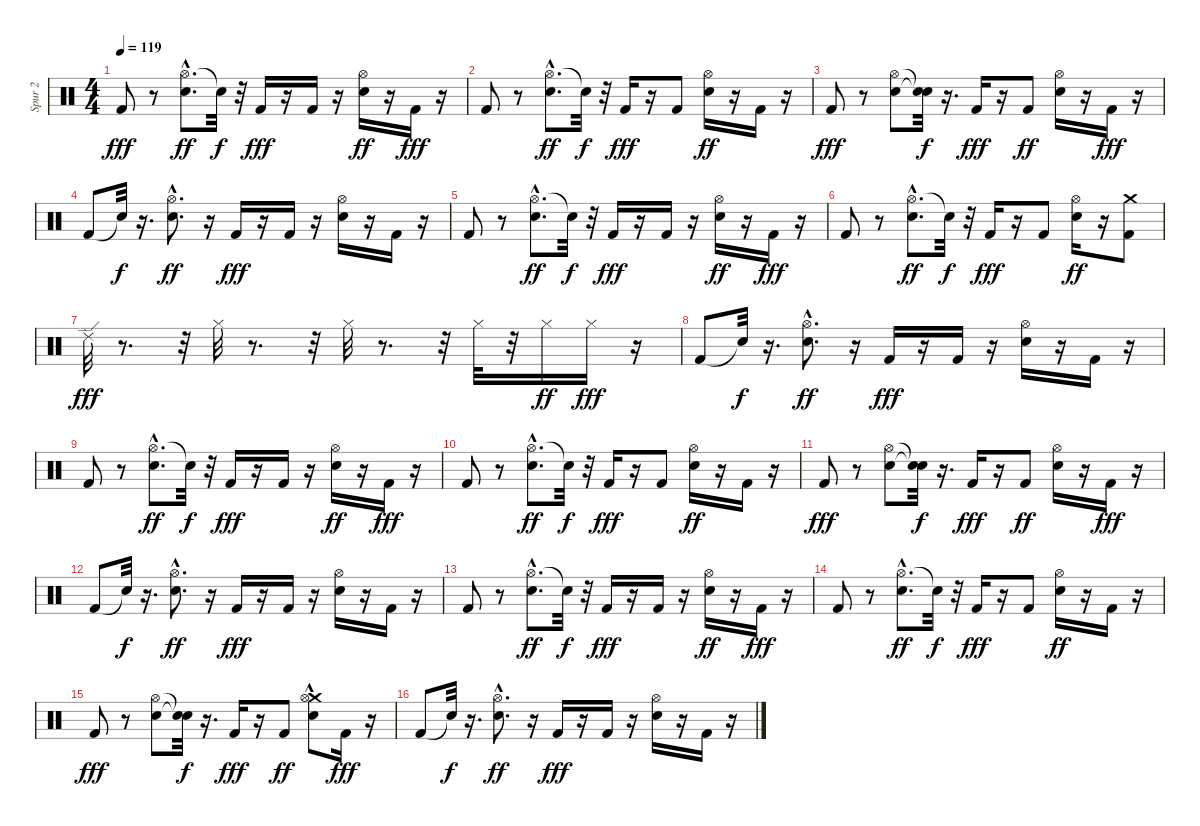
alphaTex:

\track ("Spur 2" "Spur 2") {instrument percussion}
\staff {score}
\articulation defaults
\ts (4 4)
\tempo 119
\clef neutral
\ks c "Kick (hit) 2".8{dy fff}
r.8 ("Hi-Hat (open)"{hac} "Electric Snare (hit)").8{d dy ff} "Snare (hit)"{t}.32{dy f} r.32 "Kick (hit) 2".16{dy fff} r.16 "Kick (hit) 2".16 r.16 ("Hi-Hat (open)" "Electric Snare (hit)").16{dy ff} r.16 "Kick (hit) 2".16{dy fff} r.16 |
"Kick (hit) 2".8 r.8 ("Hi-Hat (open)"{hac} "Electric Snare (hit)").8{d dy ff} "Snare (hit)"{t}.32{dy f} r.32 "Kick (hit) 2".16{dy fff} r.16 "Kick (hit) 2".8 ("Hi-Hat (open)" "Electric Snare (hit)").16{dy ff} r.16 "Kick (hit) 2".16 r.16 |
"Kick (hit) 2".8{dy fff} r.8 ("Hi-Hat (open)" "Electric Snare (hit)").8 ("Snare (hit)"{t} "Snare (hit)"{t}).32{dy f} r.16{d} "Kick (hit) 2".16{dy fff} r.16 "Kick (hit) 2".8{dy ff} ("Hi-Hat (open)" "Electric Snare (hit)").16 r.16 "Kick (hit) 2".16{dy fff} r.16 |
"Kick (hit) 2".8 "Snare (hit)"{t}.32{dy f} r.16{d} ("Hi-Hat (open)"{hac} "Electric Snare (hit)").8{d dy ff} r.16 "Kick (hit) 2".16{dy fff} r.16 "Kick (hit) 2".16 r.16 ("Hi-Hat (open)" "Electric Snare (hit)").16 r.16 "Kick (hit) 2".16 r.16 |
"Kick (hit) 2".8 r.8 ("Hi-Hat (open)"{hac} "Electric Snare (hit)").8{d dy ff} "Snare (hit)"{t}.32{dy f} r.32 "Kick (hit) 2".16{dy fff} r.16 "Kick (hit) 2".16 r.16 ("Hi-Hat (open)" "Electric Snare (hit)").16{dy ff} r.16 "Kick (hit) 2".16{dy fff} r.16 |
"Kick (hit) 2".8 r.8 ("Hi-Hat (open)"{hac} "Electric Snare (hit)").8{d dy ff} "Snare (hit)"{t}.32{dy f} r.32 "Kick (hit) 2".16{dy fff} r.16 "Kick (hit) 2".8 ("Hi-Hat (open)" "Electric Snare (hit)").16{dy ff} r.16 ("Crash medium (hit)" "Kick (hit) 2").8 |
"Ride (edge) 2".32{dy fff} r.8{d} r.32 "Hi-Hat (closed)".32 r.8{d} r.32 "Hi-Hat (closed)".32 r.8{d} r.32 "Hi-Hat (closed)".32 r.32 "Hi-Hat (closed)".16{dy ff} "Hi-Hat (closed)".16{dy fff} r.16 |
"Kick (hit) 2".8 "Snare (hit)"{t}.32{dy f} r.16{d} ("Hi-Hat (open)"{hac} "Electric Snare (hit)").8{d dy ff} r.16 "Kick (hit) 2".16{dy fff} r.16 "Kick (hit) 2".16 r.16 ("Hi-Hat (open)" "Electric Snare (hit)").16 r.16 "Kick (hit) 2".16 r.16 |
"Kick (hit) 2".8 r.8 ("Hi-Hat (open)"{hac} "Electric Snare (hit)").8{d dy ff} "Snare (hit)"{t}.32{dy f} r.32 "Kick (hit) 2".16{dy fff} r.16 "Kick (hit) 2".16 r.16 ("Hi-Hat (open)" "Electric Snare (hit)").16{dy ff} r.16 "Kick (hit) 2".16{dy fff} r.16 |
"Kick (hit) 2".8 r.8 ("Hi-Hat (open)"{hac} "Electric Snare (hit)").8{d dy ff} "Snare (hit)"{t}.32{dy f} r.32 "Kick (hit) 2".16{dy fff} r.16 "Kick (hit) 2".8 ("Hi-Hat (open)" "Electric Snare (hit)").16{dy ff} r.16 "Kick (hit) 2".16 r.16 |
"Kick (hit) 2".8{dy fff} r.8 ("Hi-Hat (open)" "Electric Snare (hit)").8 ("Snare (hit)"{t} "Snare (hit)"{t}).32{dy f} r.16{d} "Kick (hit) 2".16{dy fff} r.16 "Kick (hit) 2".8{dy ff} ("Hi-Hat (open)" "Electric Snare (hit)").16 r.16 "Kick (hit) 2".16{dy fff} r.16 |
"Kick (hit) 2".8 "Snare (hit)"{t}.32{dy f} r.16{d} ("Hi-Hat (open)"{hac} "Electric Snare (hit)").8{d dy ff} r.16 "Kick (hit) 2".16{dy fff} r.16 "Kick (hit) 2".16 r.16 ("Hi-Hat (open)" "Electric Snare (hit)").16 r.16 "Kick (hit) 2".16 r.16 |
"Kick (hit) 2".8 r.8 ("Hi-Hat (open)"{hac} "Electric Snare (hit)").8{d dy ff} "Snare (hit)"{t}.32{dy f} r.32 "Kick (hit) 2".16{dy fff} r.16 "Kick (hit) 2".16 r.16 ("Hi-Hat (open)" "Electric Snare (hit)").16{dy ff} r.16 "Kick (hit) 2".16{dy fff} r.16 |
"Kick (hit) 2".8 r.8 ("Hi-Hat (open)"{hac} "Electric Snare (hit)").8{d dy ff} "Snare (hit)"{t}.32{dy f} r.32 "Kick (hit) 2".16{dy fff} r.16 "Kick (hit) 2".8 ("Hi-Hat (open)" "Electric Snare (hit)").16{dy ff} r.16 "Kick (hit) 2".16 r.16 |
"Kick (hit) 2".8{dy fff} r.8 ("Hi-Hat (open)" "Electric Snare (hit)").8 ("Snare (hit)"{t} "Snare (hit)"{t}).32{dy f} r.16{d} "Kick (hit) 2".16{dy fff} r.16 "Kick (hit) 2".8{dy ff} ("Crash medium (hit)"{hac} "Hi-Hat (open)" "Electric Snare (hit)").8 "Kick (hit) 2".16{dy fff} r.16 |
"Kick (hit) 2".8 "Snare (hit)"{t}.32{dy f} r.16{d} ("Hi-Hat (open)"{hac} "Electric Snare (hit)").8{d dy ff} r.16 "Kick (hit) 2".16{dy fff} r.16 "Kick (hit) 2".16 r.16 ("Hi-Hat (open)" "Electric Snare (hit)").16 r.16 "Kick (hit) 2".16 r.16
